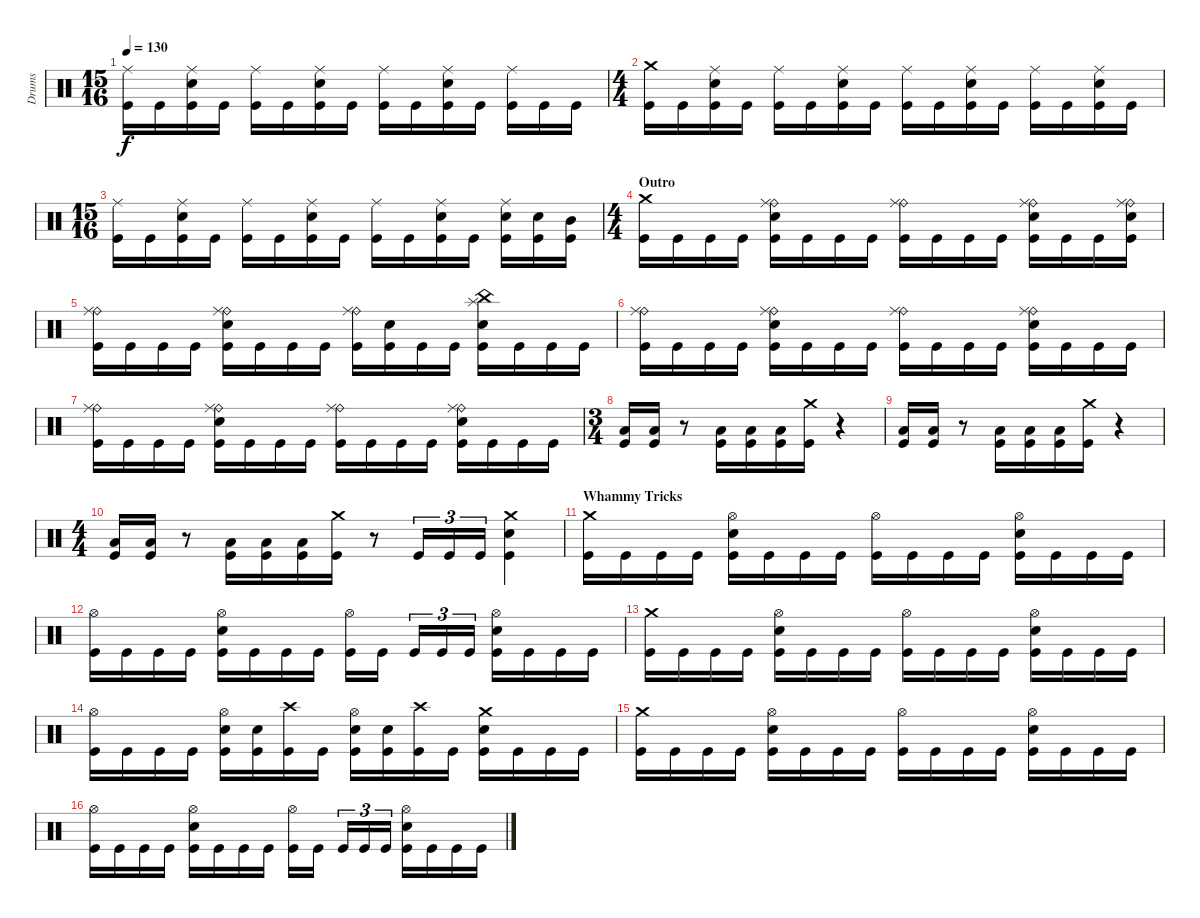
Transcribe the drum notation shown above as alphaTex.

\track ("Drums" "Drums") {instrument percussion}
\staff {score}
\articulation defaults
\ts (15 16)
\tempo 130
\clef neutral
\ks c
("Ride (middle)" "Kick (hit)").16{dy f} "Kick (hit)".16 ("Ride (middle)" "Snare (hit) 2" "Kick (hit)").16 "Kick (hit)".16 ("Ride (middle)" "Kick (hit)").16 "Kick (hit)".16 ("Ride (middle)" "Snare (hit) 2" "Kick (hit)").16 "Kick (hit)".16 ("Ride (middle)" "Kick (hit)").16 "Kick (hit)".16 ("Ride (middle)" "Snare (hit) 2" "Kick (hit)").16 "Kick (hit)".16 ("Ride (middle)" "Kick (hit)").16 "Kick (hit)".16 "Kick (hit)".16 |
\ts (4 4)
("Crash medium (hit)" "Kick (hit)").16 "Kick (hit)".16 ("Ride (middle)" "Snare (hit) 2" "Kick (hit)").16 "Kick (hit)".16 ("Ride (middle)" "Kick (hit)").16 "Kick (hit)".16 ("Ride (middle)" "Snare (hit) 2" "Kick (hit)").16 "Kick (hit)".16 ("Ride (middle)" "Kick (hit)").16 "Kick (hit)".16 ("Ride (middle)" "Snare (hit) 2" "Kick (hit)").16 "Kick (hit)".16 ("Ride (middle)" "Kick (hit)").16 "Kick (hit)".16 ("Ride (middle)" "Snare (hit) 2" "Kick (hit)").16 "Kick (hit)".16 |
\ts (15 16)
("Ride (middle)" "Kick (hit)").16 "Kick (hit)".16 ("Ride (middle)" "Snare (hit) 2" "Kick (hit)").16 "Kick (hit)".16 ("Ride (middle)" "Kick (hit)").16 "Kick (hit)".16 ("Ride (middle)" "Snare (hit) 2" "Kick (hit)").16 "Kick (hit)".16 ("Ride (middle)" "Kick (hit)").16 "Kick (hit)".16 ("Ride (middle)" "Snare (hit) 2" "Kick (hit)").16 "Kick (hit)".16 ("Ride (middle)" "Snare (hit) 2" "Kick (hit)").16 ("Snare (hit) 2" "Kick (hit)").16 ("Mid Tom (hit)" "Kick (hit)").16 |
\ts (4 4)
\section ("" "Outro")
("Crash medium (hit)" "Kick (hit)").16 "Kick (hit)".16 "Kick (hit)".16 "Kick (hit)".16 ("Ride (bell)" "Ride (middle)" "Snare (hit) 2" "Kick (hit)").16 "Kick (hit)".16 "Kick (hit)".16 "Kick (hit)".16 ("Ride (bell)" "Ride (middle)" "Kick (hit)").16 "Kick (hit)".16 "Kick (hit)".16 "Kick (hit)".16 ("Ride (bell)" "Ride (middle)" "Snare (hit) 2" "Kick (hit)").16 "Kick (hit)".16 "Kick (hit)".16 ("Ride (bell)" "Ride (middle)" "Snare (hit) 2" "Kick (hit)").16 |
("Ride (bell)" "Ride (middle)" "Kick (hit)").16 "Kick (hit)".16 "Kick (hit)".16 "Kick (hit)".16 ("Ride (bell)" "Ride (middle)" "Snare (hit) 2" "Kick (hit)").16 "Kick (hit)".16 "Kick (hit)".16 "Kick (hit)".16 ("Ride (bell)" "Ride (middle)" "Kick (hit)").16 ("Electric Snare (hit)" "Kick (hit)").16 "Kick (hit)".16 "Kick (hit)".16 ("Splash (hit)" "China (hit)" "Snare (hit) 2" "Kick (hit)").16 "Kick (hit)".16 "Kick (hit)".16 "Kick (hit)".16 |
("Ride (bell)" "Ride (middle)" "Kick (hit)").16 "Kick (hit)".16 "Kick (hit)".16 "Kick (hit)".16 ("Ride (bell)" "Ride (middle)" "Snare (hit) 2" "Kick (hit)").16 "Kick (hit)".16 "Kick (hit)".16 "Kick (hit)".16 ("Ride (bell)" "Ride (middle)" "Kick (hit)").16 "Kick (hit)".16 "Kick (hit)".16 "Kick (hit)".16 ("Ride (bell)" "Ride (middle)" "Snare (hit) 2" "Kick (hit)").16 "Kick (hit)".16 "Kick (hit)".16 "Kick (hit)".16 |
("Ride (bell)" "Ride (middle)" "Kick (hit)").16 "Kick (hit)".16 "Kick (hit)".16 "Kick (hit)".16 ("Ride (bell)" "Ride (middle)" "Snare (hit) 2" "Kick (hit)").16 "Kick (hit)".16 "Kick (hit)".16 "Kick (hit)".16 ("Ride (bell)" "Ride (middle)" "Kick (hit)").16 "Kick (hit)".16 "Kick (hit)".16 "Kick (hit)".16 ("Ride (bell)" "Ride (middle)" "Snare (hit) 2" "Kick (hit)").16 "Kick (hit)".16 "Kick (hit)".16 "Kick (hit)".16 |
\ts (3 4)
("Low Floor Tom (hit)" "Kick (hit)").16 ("Low Floor Tom (hit)" "Kick (hit)").16 r.8 ("Low Floor Tom (hit)" "Kick (hit)").16 ("Low Floor Tom (hit)" "Kick (hit)").16 ("Low Floor Tom (hit)" "Kick (hit)").16 ("Crash medium (hit)" "Kick (hit)").16 r.4 |
("Low Floor Tom (hit)" "Kick (hit)").16 ("Low Floor Tom (hit)" "Kick (hit)").16 r.8 ("Low Floor Tom (hit)" "Kick (hit)").16 ("Low Floor Tom (hit)" "Kick (hit)").16 ("Low Floor Tom (hit)" "Kick (hit)").16 ("Crash medium (hit)" "Kick (hit)").16 r.4 |
\ts (4 4)
("Low Floor Tom (hit)" "Kick (hit)").16 ("Low Floor Tom (hit)" "Kick (hit)").16 r.8 ("Low Floor Tom (hit)" "Kick (hit)").16 ("Low Floor Tom (hit)" "Kick (hit)").16 ("Low Floor Tom (hit)" "Kick (hit)").16 ("Crash medium (hit)" "Kick (hit)").16 r.8 "Kick (hit)".16{tu (3 2)} "Kick (hit)".16{tu (3 2)} "Kick (hit)".16{tu (3 2)} ("Crash medium (hit)" "Snare (hit) 2" "Kick (hit)").4 |
\section ("" "Whammy Tricks")
("Crash medium (hit)" "Kick (hit)").16 "Kick (hit)".16 "Kick (hit)".16 "Kick (hit)".16 ("Hi-Hat (open)" "Snare (hit) 2" "Kick (hit)").16 "Kick (hit)".16 "Kick (hit)".16 "Kick (hit)".16 ("Hi-Hat (open)" "Kick (hit)").16 "Kick (hit)".16 "Kick (hit)".16 "Kick (hit)".16 ("Hi-Hat (open)" "Snare (hit) 2" "Kick (hit)").16 "Kick (hit)".16 "Kick (hit)".16 "Kick (hit)".16 |
("Hi-Hat (open)" "Kick (hit)").16 "Kick (hit)".16 "Kick (hit)".16 "Kick (hit)".16 ("Hi-Hat (open)" "Snare (hit) 2" "Kick (hit)").16 "Kick (hit)".16 "Kick (hit)".16 "Kick (hit)".16 ("Hi-Hat (open)" "Kick (hit)").16 "Kick (hit)".16 "Kick (hit)".16{tu (3 2)} "Kick (hit)".16{tu (3 2)} "Kick (hit)".16{tu (3 2)} ("Hi-Hat (open)" "Snare (hit) 2" "Kick (hit)").16 "Kick (hit)".16 "Kick (hit)".16 "Kick (hit)".16 |
("Crash medium (hit)" "Kick (hit)").16 "Kick (hit)".16 "Kick (hit)".16 "Kick (hit)".16 ("Hi-Hat (open)" "Snare (hit) 2" "Kick (hit)").16 "Kick (hit)".16 "Kick (hit)".16 "Kick (hit)".16 ("Hi-Hat (open)" "Kick (hit)").16 "Kick (hit)".16 "Kick (hit)".16 "Kick (hit)".16 ("Hi-Hat (open)" "Snare (hit) 2" "Kick (hit)").16 "Kick (hit)".16 "Kick (hit)".16 "Kick (hit)".16 |
("Hi-Hat (open)" "Kick (hit)").16 "Kick (hit)".16 "Kick (hit)".16 "Kick (hit)".16 ("Hi-Hat (open)" "Snare (hit) 2" "Kick (hit)").16 ("Snare (hit) 2" "Kick (hit)").16 ("Crash high (hit)" "Kick (hit)").16 "Kick (hit)".16 ("Hi-Hat (open)" "Snare (hit) 2" "Kick (hit)").16 ("Snare (hit) 2" "Kick (hit)").16 ("Crash high (hit)" "Kick (hit)").16 "Kick (hit)".16 ("Crash medium (hit)" "Snare (hit) 2" "Kick (hit)").16 "Kick (hit)".16 "Kick (hit)".16 "Kick (hit)".16 |
("Crash medium (hit)" "Kick (hit)").16 "Kick (hit)".16 "Kick (hit)".16 "Kick (hit)".16 ("Hi-Hat (open)" "Snare (hit) 2" "Kick (hit)").16 "Kick (hit)".16 "Kick (hit)".16 "Kick (hit)".16 ("Hi-Hat (open)" "Kick (hit)").16 "Kick (hit)".16 "Kick (hit)".16 "Kick (hit)".16 ("Hi-Hat (open)" "Snare (hit) 2" "Kick (hit)").16 "Kick (hit)".16 "Kick (hit)".16 "Kick (hit)".16 |
("Hi-Hat (open)" "Kick (hit)").16 "Kick (hit)".16 "Kick (hit)".16 "Kick (hit)".16 ("Hi-Hat (open)" "Snare (hit) 2" "Kick (hit)").16 "Kick (hit)".16 "Kick (hit)".16 "Kick (hit)".16 ("Hi-Hat (open)" "Kick (hit)").16 "Kick (hit)".16 "Kick (hit)".16{tu (3 2)} "Kick (hit)".16{tu (3 2)} "Kick (hit)".16{tu (3 2)} ("Hi-Hat (open)" "Snare (hit) 2" "Kick (hit)").16 "Kick (hit)".16 "Kick (hit)".16 "Kick (hit)".16
